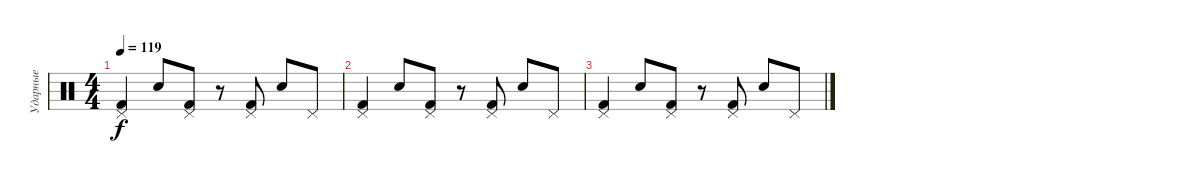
\track ("Ударные" "Ударные") {instrument percussion}
\staff {score}
\articulation defaults
\ts (4 4)
\tempo 119
\clef neutral
\ks c
("Pedal Hi-Hat (hit)" "Kick (hit) 2").4{dy f} "Electric Snare (hit)".8 ("Pedal Hi-Hat (hit)" "Kick (hit) 2").8 r.8 ("Pedal Hi-Hat (hit)" "Kick (hit) 2").8 "Electric Snare (hit)".8 "Pedal Hi-Hat (hit)".8 |
("Pedal Hi-Hat (hit)" "Kick (hit) 2").4 "Electric Snare (hit)".8 ("Pedal Hi-Hat (hit)" "Kick (hit) 2").8 r.8 ("Pedal Hi-Hat (hit)" "Kick (hit) 2").8 "Electric Snare (hit)".8 "Pedal Hi-Hat (hit)".8 |
("Pedal Hi-Hat (hit)" "Kick (hit) 2").4 "Electric Snare (hit)".8 ("Pedal Hi-Hat (hit)" "Kick (hit) 2").8 r.8 ("Pedal Hi-Hat (hit)" "Kick (hit) 2").8 "Electric Snare (hit)".8 "Pedal Hi-Hat (hit)".8
